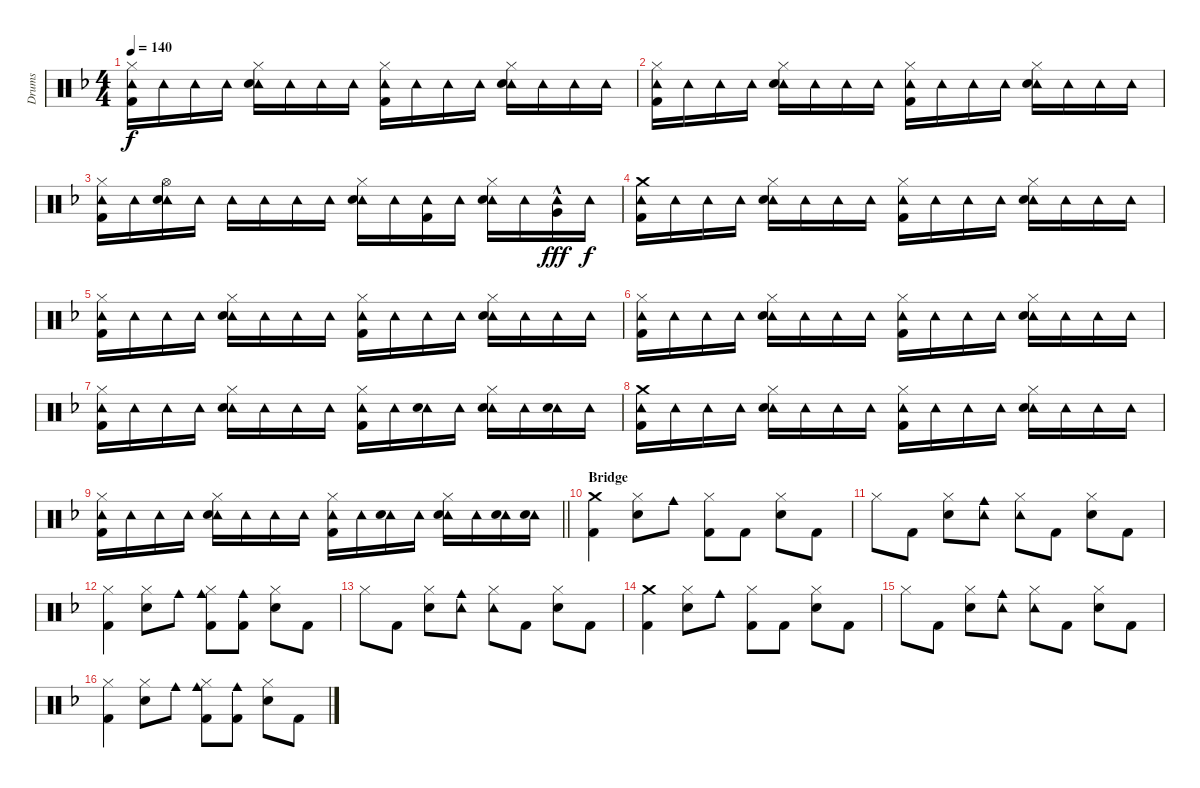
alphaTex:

\track ("Drums" "Drums") {instrument percussion}
\staff {score}
\articulation defaults
\ts (4 4)
\tempo 140
\clef neutral
\ks f
("Hi-Hat (closed)" "Tambourine (hit)" "Kick (hit) 2").16{dy f} "Tambourine (hit)".16 "Tambourine (hit)".16 "Tambourine (hit)".16 ("Hi-Hat (closed)" "Tambourine (hit)" "Electric Snare (hit)").16 "Tambourine (hit)".16 "Tambourine (hit)".16 "Tambourine (hit)".16 ("Hi-Hat (closed)" "Tambourine (hit)" "Kick (hit) 2").16 "Tambourine (hit)".16 "Tambourine (hit)".16 "Tambourine (hit)".16 ("Hi-Hat (closed)" "Tambourine (hit)" "Electric Snare (hit)").16 "Tambourine (hit)".16 "Tambourine (hit)".16 "Tambourine (hit)".16 |
("Hi-Hat (closed)" "Tambourine (hit)" "Kick (hit) 2").16 "Tambourine (hit)".16 "Tambourine (hit)".16 "Tambourine (hit)".16 ("Hi-Hat (closed)" "Tambourine (hit)" "Electric Snare (hit)").16 "Tambourine (hit)".16 "Tambourine (hit)".16 "Tambourine (hit)".16 ("Hi-Hat (closed)" "Tambourine (hit)" "Kick (hit) 2").16 "Tambourine (hit)".16 "Tambourine (hit)".16 "Tambourine (hit)".16 ("Hi-Hat (closed)" "Tambourine (hit)" "Electric Snare (hit)").16 "Tambourine (hit)".16 "Tambourine (hit)".16 "Tambourine (hit)".16 |
("Hi-Hat (closed)" "Tambourine (hit)" "Kick (hit) 2").16 "Tambourine (hit)".16 ("Hi-Hat (open)" "Tambourine (hit)" "Electric Snare (hit)").16 "Tambourine (hit)".16 "Tambourine (hit)".16 "Tambourine (hit)".16 "Tambourine (hit)".16 "Tambourine (hit)".16 ("Hi-Hat (closed)" "Tambourine (hit)" "Electric Snare (hit)").16 "Tambourine (hit)".16 ("Tambourine (hit)" "Kick (hit) 2").16 "Tambourine (hit)".16 ("Hi-Hat (closed)" "Tambourine (hit)" "Electric Snare (hit)").16 "Tambourine (hit)".16 ("Tambourine (hit)" "Very Low Tom (hit)"{hac}).16{dy fff} "Tambourine (hit)".16{dy f} |
("Crash medium (hit)" "Tambourine (hit)" "Kick (hit) 2").16 "Tambourine (hit)".16 "Tambourine (hit)".16 "Tambourine (hit)".16 ("Hi-Hat (closed)" "Tambourine (hit)" "Electric Snare (hit)").16 "Tambourine (hit)".16 "Tambourine (hit)".16 "Tambourine (hit)".16 ("Hi-Hat (closed)" "Tambourine (hit)" "Kick (hit) 2").16 "Tambourine (hit)".16 "Tambourine (hit)".16 "Tambourine (hit)".16 ("Hi-Hat (closed)" "Tambourine (hit)" "Electric Snare (hit)").16 "Tambourine (hit)".16 "Tambourine (hit)".16 "Tambourine (hit)".16 |
("Hi-Hat (closed)" "Tambourine (hit)" "Kick (hit) 2").16 "Tambourine (hit)".16 "Tambourine (hit)".16 "Tambourine (hit)".16 ("Hi-Hat (closed)" "Tambourine (hit)" "Electric Snare (hit)").16 "Tambourine (hit)".16 "Tambourine (hit)".16 "Tambourine (hit)".16 ("Hi-Hat (closed)" "Tambourine (hit)" "Kick (hit) 2").16 "Tambourine (hit)".16 "Tambourine (hit)".16 "Tambourine (hit)".16 ("Hi-Hat (closed)" "Tambourine (hit)" "Electric Snare (hit)").16 "Tambourine (hit)".16 "Tambourine (hit)".16 "Tambourine (hit)".16 |
("Hi-Hat (closed)" "Tambourine (hit)" "Kick (hit) 2").16 "Tambourine (hit)".16 "Tambourine (hit)".16 "Tambourine (hit)".16 ("Hi-Hat (closed)" "Tambourine (hit)" "Electric Snare (hit)").16 "Tambourine (hit)".16 "Tambourine (hit)".16 "Tambourine (hit)".16 ("Hi-Hat (closed)" "Tambourine (hit)" "Kick (hit) 2").16 "Tambourine (hit)".16 "Tambourine (hit)".16 "Tambourine (hit)".16 ("Hi-Hat (closed)" "Tambourine (hit)" "Electric Snare (hit)").16 "Tambourine (hit)".16 "Tambourine (hit)".16 "Tambourine (hit)".16 |
("Hi-Hat (closed)" "Tambourine (hit)" "Kick (hit) 2").16 "Tambourine (hit)".16 "Tambourine (hit)".16 "Tambourine (hit)".16 ("Hi-Hat (closed)" "Tambourine (hit)" "Electric Snare (hit)").16 "Tambourine (hit)".16 "Tambourine (hit)".16 "Tambourine (hit)".16 ("Hi-Hat (closed)" "Tambourine (hit)" "Kick (hit) 2").16 "Tambourine (hit)".16 ("Tambourine (hit)" "Electric Snare (hit)").16 "Tambourine (hit)".16 ("Hi-Hat (closed)" "Tambourine (hit)" "Electric Snare (hit)").16 "Tambourine (hit)".16 ("Tambourine (hit)" "Electric Snare (hit)").16 "Tambourine (hit)".16 |
("Crash medium (hit)" "Tambourine (hit)" "Kick (hit) 2").16 "Tambourine (hit)".16 "Tambourine (hit)".16 "Tambourine (hit)".16 ("Hi-Hat (closed)" "Tambourine (hit)" "Electric Snare (hit)").16 "Tambourine (hit)".16 "Tambourine (hit)".16 "Tambourine (hit)".16 ("Hi-Hat (closed)" "Tambourine (hit)" "Kick (hit) 2").16 "Tambourine (hit)".16 "Tambourine (hit)".16 "Tambourine (hit)".16 ("Hi-Hat (closed)" "Tambourine (hit)" "Electric Snare (hit)").16 "Tambourine (hit)".16 "Tambourine (hit)".16 "Tambourine (hit)".16 |
\barLineRight lightlight
("Hi-Hat (closed)" "Tambourine (hit)" "Kick (hit) 2").16 "Tambourine (hit)".16 "Tambourine (hit)".16 "Tambourine (hit)".16 ("Hi-Hat (closed)" "Tambourine (hit)" "Electric Snare (hit)").16 "Tambourine (hit)".16 "Tambourine (hit)".16 "Tambourine (hit)".16 ("Hi-Hat (closed)" "Tambourine (hit)" "Kick (hit) 2").16 "Tambourine (hit)".16 ("Tambourine (hit)" "Electric Snare (hit)").16 "Tambourine (hit)".16 ("Hi-Hat (closed)" "Tambourine (hit)" "Electric Snare (hit)").16 "Tambourine (hit)".16 ("Tambourine (hit)" "Electric Snare (hit)").16 ("Tambourine (hit)" "Electric Snare (hit)").16 |
\section ("" "Bridge")
("Crash medium (hit)" "Kick (hit) 2").4 ("Hi-Hat (closed)" "Electric Snare (hit)").8 "Cowbell medium (hit)".8 ("Hi-Hat (closed)" "Kick (hit) 2").8 "Kick (hit) 2".8 ("Hi-Hat (closed)" "Electric Snare (hit)").8 "Kick (hit) 2".8 |
"Hi-Hat (closed)".8 "Kick (hit) 2".8 ("Hi-Hat (closed)" "Electric Snare (hit)").8 ("Tambourine (hit)" "Cowbell medium (hit)").8 ("Hi-Hat (closed)" "Tambourine (hit)").8 "Kick (hit) 2".8 ("Hi-Hat (closed)" "Electric Snare (hit)").8 "Kick (hit) 2".8 |
("Hi-Hat (closed)" "Kick (hit) 2").4 ("Hi-Hat (closed)" "Electric Snare (hit)").8 "Cowbell medium (hit)".8 ("Hi-Hat (closed)" "Cowbell medium (hit)" "Kick (hit) 2").8 ("Cowbell medium (hit)" "Kick (hit) 2").8 ("Hi-Hat (closed)" "Electric Snare (hit)").8 "Kick (hit) 2".8 |
"Hi-Hat (closed)".8 "Kick (hit) 2".8 ("Hi-Hat (closed)" "Electric Snare (hit)").8 ("Tambourine (hit)" "Cowbell medium (hit)").8 ("Hi-Hat (closed)" "Tambourine (hit)").8 "Kick (hit) 2".8 ("Hi-Hat (closed)" "Electric Snare (hit)").8 "Kick (hit) 2".8 |
("Crash medium (hit)" "Kick (hit) 2").4 ("Hi-Hat (closed)" "Electric Snare (hit)").8 "Cowbell medium (hit)".8 ("Hi-Hat (closed)" "Kick (hit) 2").8 "Kick (hit) 2".8 ("Hi-Hat (closed)" "Electric Snare (hit)").8 "Kick (hit) 2".8 |
"Hi-Hat (closed)".8 "Kick (hit) 2".8 ("Hi-Hat (closed)" "Electric Snare (hit)").8 ("Tambourine (hit)" "Cowbell medium (hit)").8 ("Hi-Hat (closed)" "Tambourine (hit)").8 "Kick (hit) 2".8 ("Hi-Hat (closed)" "Electric Snare (hit)").8 "Kick (hit) 2".8 |
("Hi-Hat (closed)" "Kick (hit) 2").4 ("Hi-Hat (closed)" "Electric Snare (hit)").8 "Cowbell medium (hit)".8 ("Hi-Hat (closed)" "Cowbell medium (hit)" "Kick (hit) 2").8 ("Cowbell medium (hit)" "Kick (hit) 2").8 ("Hi-Hat (closed)" "Electric Snare (hit)").8 "Kick (hit) 2".8
